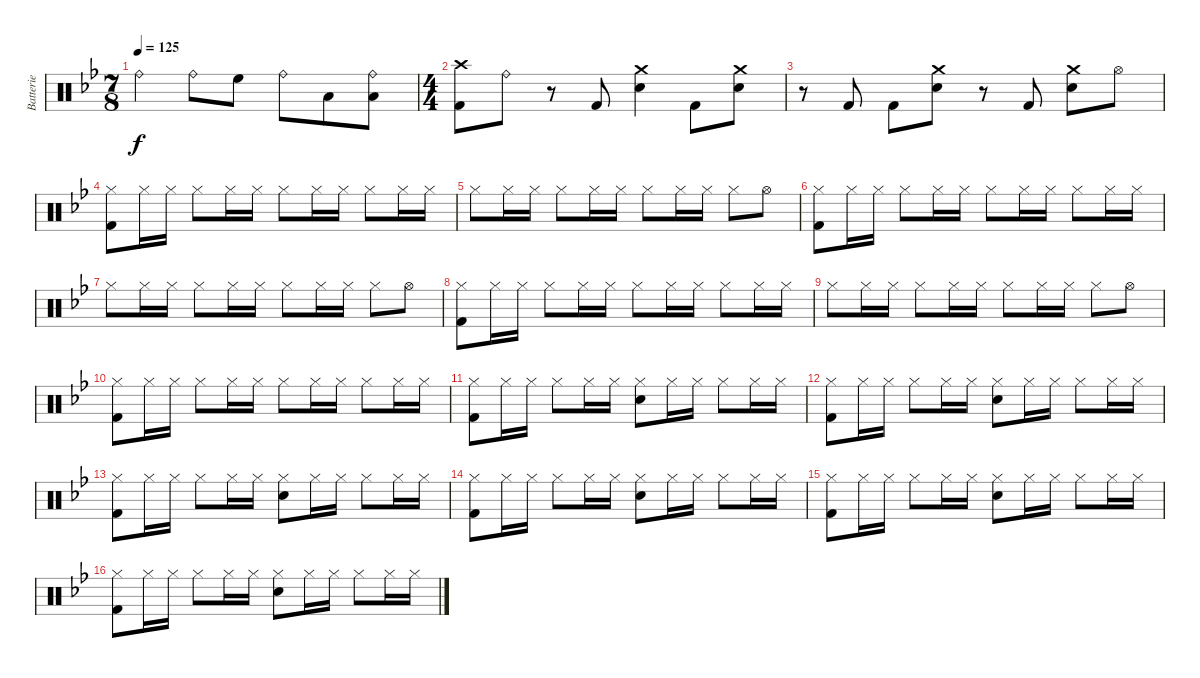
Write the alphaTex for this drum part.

\track ("Batterie" "Batterie") {instrument percussion}
\staff {score}
\articulation defaults
\ts (7 8)
\tempo 125
\clef neutral
\ks bb "Ride (bell)".4{dy f} "Ride (bell)".8 "High Floor Tom (hit)".8 "Ride (bell)".8 "Low Tom (hit)".8
("Ride (bell)" "Low Tom (hit)").8 |
\ts (4 4)
("Crash high (hit)" "Kick (hit) 2").8 "Ride (bell)".8 r.8 "Kick (hit) 2".8 ("Crash medium (hit)" "Electric Snare (hit)").4 "Kick (hit) 2".8 ("Crash medium (hit)" "Electric Snare (hit)").8 |
r.8 "Kick (hit) 2".8 "Kick (hit) 2".8 ("Crash medium (hit)" "Electric Snare (hit)").8 r.8 "Kick (hit) 2".8 ("Crash medium (hit)" "Electric Snare (hit)").8 "Hi-Hat (open)".8 |
("Hi-Hat (closed)" "Kick (hit) 2").8 "Hi-Hat (closed)".16 "Hi-Hat (closed)".16 "Hi-Hat (closed)".8 "Hi-Hat (closed)".16 "Hi-Hat (closed)".16 "Hi-Hat (closed)".8 "Hi-Hat (closed)".16 "Hi-Hat (closed)".16 "Hi-Hat (closed)".8 "Hi-Hat (closed)".16 "Hi-Hat (closed)".16 |
"Hi-Hat (closed)".8 "Hi-Hat (closed)".16 "Hi-Hat (closed)".16 "Hi-Hat (closed)".8 "Hi-Hat (closed)".16 "Hi-Hat (closed)".16 "Hi-Hat (closed)".8 "Hi-Hat (closed)".16 "Hi-Hat (closed)".16 "Hi-Hat (closed)".8 "Hi-Hat (open)".8 |
("Hi-Hat (closed)" "Kick (hit) 2").8 "Hi-Hat (closed)".16 "Hi-Hat (closed)".16 "Hi-Hat (closed)".8 "Hi-Hat (closed)".16 "Hi-Hat (closed)".16 "Hi-Hat (closed)".8 "Hi-Hat (closed)".16 "Hi-Hat (closed)".16 "Hi-Hat (closed)".8 "Hi-Hat (closed)".16 "Hi-Hat (closed)".16 |
"Hi-Hat (closed)".8 "Hi-Hat (closed)".16 "Hi-Hat (closed)".16 "Hi-Hat (closed)".8 "Hi-Hat (closed)".16 "Hi-Hat (closed)".16 "Hi-Hat (closed)".8 "Hi-Hat (closed)".16 "Hi-Hat (closed)".16 "Hi-Hat (closed)".8 "Hi-Hat (open)".8 |
("Hi-Hat (closed)" "Kick (hit) 2").8 "Hi-Hat (closed)".16 "Hi-Hat (closed)".16 "Hi-Hat (closed)".8 "Hi-Hat (closed)".16 "Hi-Hat (closed)".16 "Hi-Hat (closed)".8 "Hi-Hat (closed)".16 "Hi-Hat (closed)".16 "Hi-Hat (closed)".8 "Hi-Hat (closed)".16 "Hi-Hat (closed)".16 |
"Hi-Hat (closed)".8 "Hi-Hat (closed)".16 "Hi-Hat (closed)".16 "Hi-Hat (closed)".8 "Hi-Hat (closed)".16 "Hi-Hat (closed)".16 "Hi-Hat (closed)".8 "Hi-Hat (closed)".16 "Hi-Hat (closed)".16 "Hi-Hat (closed)".8 "Hi-Hat (open)".8 |
("Hi-Hat (closed)" "Kick (hit) 2").8 "Hi-Hat (closed)".16 "Hi-Hat (closed)".16 "Hi-Hat (closed)".8 "Hi-Hat (closed)".16 "Hi-Hat (closed)".16 "Hi-Hat (closed)".8 "Hi-Hat (closed)".16 "Hi-Hat (closed)".16 "Hi-Hat (closed)".8 "Hi-Hat (closed)".16 "Hi-Hat (closed)".16 |
("Hi-Hat (closed)" "Kick (hit) 2").8 "Hi-Hat (closed)".16 "Hi-Hat (closed)".16 "Hi-Hat (closed)".8 "Hi-Hat (closed)".16 "Hi-Hat (closed)".16 ("Hi-Hat (closed)" "Electric Snare (hit)").8 "Hi-Hat (closed)".16 "Hi-Hat (closed)".16 "Hi-Hat (closed)".8 "Hi-Hat (closed)".16 "Hi-Hat (closed)".16 |
("Hi-Hat (closed)" "Kick (hit) 2").8 "Hi-Hat (closed)".16 "Hi-Hat (closed)".16 "Hi-Hat (closed)".8 "Hi-Hat (closed)".16 "Hi-Hat (closed)".16 ("Hi-Hat (closed)" "Electric Snare (hit)").8 "Hi-Hat (closed)".16 "Hi-Hat (closed)".16 "Hi-Hat (closed)".8 "Hi-Hat (closed)".16 "Hi-Hat (closed)".16 |
("Hi-Hat (closed)" "Kick (hit) 2").8 "Hi-Hat (closed)".16 "Hi-Hat (closed)".16 "Hi-Hat (closed)".8 "Hi-Hat (closed)".16 "Hi-Hat (closed)".16 ("Hi-Hat (closed)" "Electric Snare (hit)").8 "Hi-Hat (closed)".16 "Hi-Hat (closed)".16 "Hi-Hat (closed)".8 "Hi-Hat (closed)".16 "Hi-Hat (closed)".16 |
("Hi-Hat (closed)" "Kick (hit) 2").8 "Hi-Hat (closed)".16 "Hi-Hat (closed)".16 "Hi-Hat (closed)".8 "Hi-Hat (closed)".16 "Hi-Hat (closed)".16 ("Hi-Hat (closed)" "Electric Snare (hit)").8 "Hi-Hat (closed)".16 "Hi-Hat (closed)".16 "Hi-Hat (closed)".8 "Hi-Hat (closed)".16 "Hi-Hat (closed)".16 |
("Hi-Hat (closed)" "Kick (hit) 2").8 "Hi-Hat (closed)".16 "Hi-Hat (closed)".16 "Hi-Hat (closed)".8 "Hi-Hat (closed)".16 "Hi-Hat (closed)".16 ("Hi-Hat (closed)" "Electric Snare (hit)").8 "Hi-Hat (closed)".16 "Hi-Hat (closed)".16 "Hi-Hat (closed)".8 "Hi-Hat (closed)".16 "Hi-Hat (closed)".16 |
("Hi-Hat (closed)" "Kick (hit) 2").8 "Hi-Hat (closed)".16 "Hi-Hat (closed)".16 "Hi-Hat (closed)".8 "Hi-Hat (closed)".16 "Hi-Hat (closed)".16 ("Hi-Hat (closed)" "Electric Snare (hit)").8 "Hi-Hat (closed)".16 "Hi-Hat (closed)".16 "Hi-Hat (closed)".8 "Hi-Hat (closed)".16 "Hi-Hat (closed)".16
